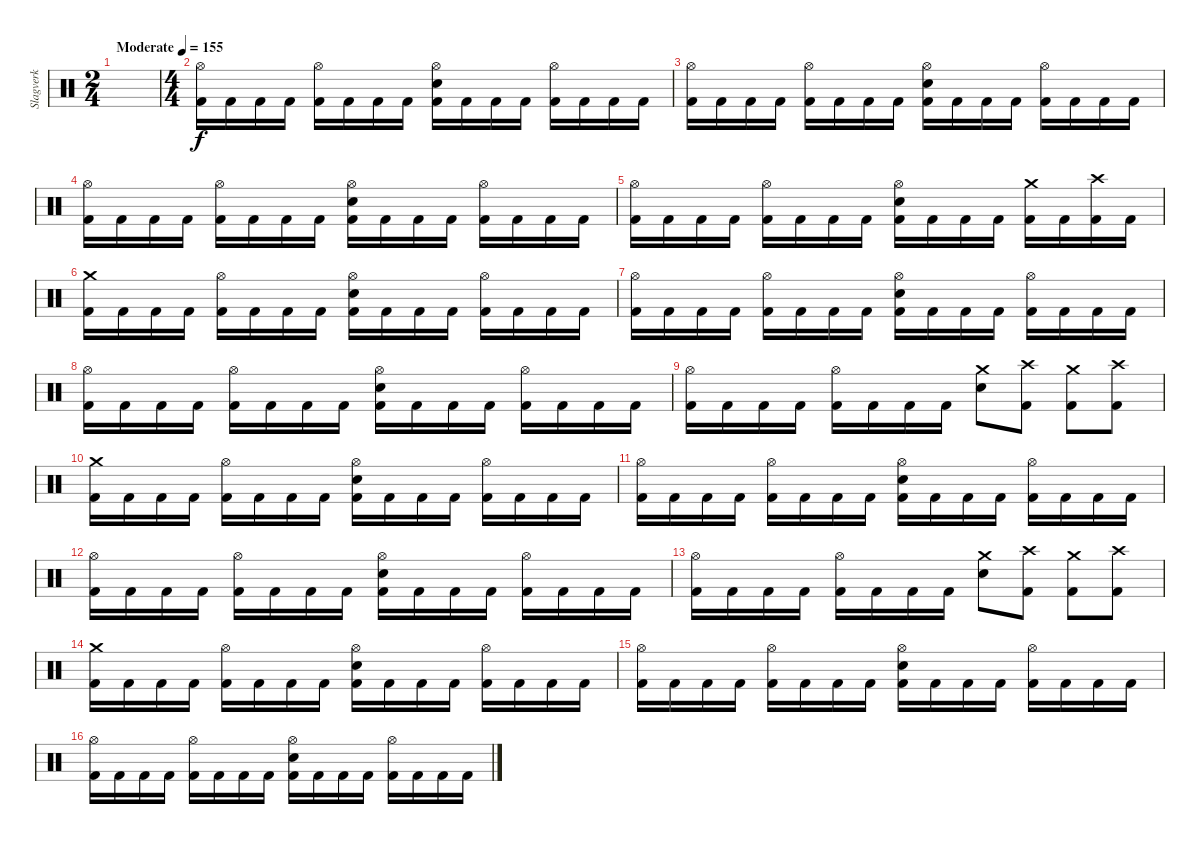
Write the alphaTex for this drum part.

\track ("Slagverk" "Slagverk") {instrument percussion}
\staff {score}
\articulation defaults
\ts (2 4)
\tempo (155 "Moderate")
\clef neutral
\ks c
|
\ts (4 4)
("Hi-Hat (open)" "Kick (hit) 2").16 "Kick (hit) 2".16 "Kick (hit) 2".16 "Kick (hit) 2".16 ("Hi-Hat (open)" "Kick (hit) 2").16 "Kick (hit) 2".16 "Kick (hit) 2".16 "Kick (hit) 2".16 ("Hi-Hat (open)" "Electric Snare (hit)" "Kick (hit) 2").16 "Kick (hit) 2".16 "Kick (hit) 2".16 "Kick (hit) 2".16 ("Hi-Hat (open)" "Kick (hit) 2").16 "Kick (hit) 2".16 "Kick (hit) 2".16 "Kick (hit) 2".16 |
("Hi-Hat (open)" "Kick (hit) 2").16 "Kick (hit) 2".16 "Kick (hit) 2".16 "Kick (hit) 2".16 ("Hi-Hat (open)" "Kick (hit) 2").16 "Kick (hit) 2".16 "Kick (hit) 2".16 "Kick (hit) 2".16 ("Hi-Hat (open)" "Electric Snare (hit)" "Kick (hit) 2").16 "Kick (hit) 2".16 "Kick (hit) 2".16 "Kick (hit) 2".16 ("Hi-Hat (open)" "Kick (hit) 2").16 "Kick (hit) 2".16 "Kick (hit) 2".16 "Kick (hit) 2".16 |
("Hi-Hat (open)" "Kick (hit) 2").16 "Kick (hit) 2".16 "Kick (hit) 2".16 "Kick (hit) 2".16 ("Hi-Hat (open)" "Kick (hit) 2").16 "Kick (hit) 2".16 "Kick (hit) 2".16 "Kick (hit) 2".16 ("Hi-Hat (open)" "Electric Snare (hit)" "Kick (hit) 2").16 "Kick (hit) 2".16 "Kick (hit) 2".16 "Kick (hit) 2".16 ("Hi-Hat (open)" "Kick (hit) 2").16 "Kick (hit) 2".16 "Kick (hit) 2".16 "Kick (hit) 2".16 |
("Hi-Hat (open)" "Kick (hit) 2").16 "Kick (hit) 2".16 "Kick (hit) 2".16 "Kick (hit) 2".16 ("Hi-Hat (open)" "Kick (hit) 2").16 "Kick (hit) 2".16 "Kick (hit) 2".16 "Kick (hit) 2".16 ("Hi-Hat (open)" "Electric Snare (hit)" "Kick (hit) 2").16 "Kick (hit) 2".16 "Kick (hit) 2".16 "Kick (hit) 2".16 ("Crash medium (hit)" "Kick (hit) 2").16 "Kick (hit) 2".16 ("Crash high (hit)" "Kick (hit) 2").16 "Kick (hit) 2".16 |
("Crash medium (hit)" "Kick (hit) 2").16 "Kick (hit) 2".16 "Kick (hit) 2".16 "Kick (hit) 2".16 ("Hi-Hat (open)" "Kick (hit) 2").16 "Kick (hit) 2".16 "Kick (hit) 2".16 "Kick (hit) 2".16 ("Hi-Hat (open)" "Electric Snare (hit)" "Kick (hit) 2").16 "Kick (hit) 2".16 "Kick (hit) 2".16 "Kick (hit) 2".16 ("Hi-Hat (open)" "Kick (hit) 2").16 "Kick (hit) 2".16 "Kick (hit) 2".16 "Kick (hit) 2".16 |
("Hi-Hat (open)" "Kick (hit) 2").16 "Kick (hit) 2".16 "Kick (hit) 2".16 "Kick (hit) 2".16 ("Hi-Hat (open)" "Kick (hit) 2").16 "Kick (hit) 2".16 "Kick (hit) 2".16 "Kick (hit) 2".16 ("Hi-Hat (open)" "Electric Snare (hit)" "Kick (hit) 2").16 "Kick (hit) 2".16 "Kick (hit) 2".16 "Kick (hit) 2".16 ("Hi-Hat (open)" "Kick (hit) 2").16 "Kick (hit) 2".16 "Kick (hit) 2".16 "Kick (hit) 2".16 |
("Hi-Hat (open)" "Kick (hit) 2").16 "Kick (hit) 2".16 "Kick (hit) 2".16 "Kick (hit) 2".16 ("Hi-Hat (open)" "Kick (hit) 2").16 "Kick (hit) 2".16 "Kick (hit) 2".16 "Kick (hit) 2".16 ("Hi-Hat (open)" "Electric Snare (hit)" "Kick (hit) 2").16 "Kick (hit) 2".16 "Kick (hit) 2".16 "Kick (hit) 2".16 ("Hi-Hat (open)" "Kick (hit) 2").16 "Kick (hit) 2".16 "Kick (hit) 2".16 "Kick (hit) 2".16 |
("Hi-Hat (open)" "Kick (hit) 2").16 "Kick (hit) 2".16 "Kick (hit) 2".16 "Kick (hit) 2".16 ("Hi-Hat (open)" "Kick (hit) 2").16 "Kick (hit) 2".16 "Kick (hit) 2".16 "Kick (hit) 2".16 ("Crash medium (hit)" "Electric Snare (hit)").8 ("Crash high (hit)" "Kick (hit) 2").8 ("Crash medium (hit)" "Kick (hit) 2").8 ("Crash high (hit)" "Kick (hit) 2").8 |
("Crash medium (hit)" "Kick (hit) 2").16 "Kick (hit) 2".16 "Kick (hit) 2".16 "Kick (hit) 2".16 ("Hi-Hat (open)" "Kick (hit) 2").16 "Kick (hit) 2".16 "Kick (hit) 2".16 "Kick (hit) 2".16 ("Hi-Hat (open)" "Electric Snare (hit)" "Kick (hit) 2").16 "Kick (hit) 2".16 "Kick (hit) 2".16 "Kick (hit) 2".16 ("Hi-Hat (open)" "Kick (hit) 2").16 "Kick (hit) 2".16 "Kick (hit) 2".16 "Kick (hit) 2".16 |
("Hi-Hat (open)" "Kick (hit) 2").16 "Kick (hit) 2".16 "Kick (hit) 2".16 "Kick (hit) 2".16 ("Hi-Hat (open)" "Kick (hit) 2").16 "Kick (hit) 2".16 "Kick (hit) 2".16 "Kick (hit) 2".16 ("Hi-Hat (open)" "Electric Snare (hit)" "Kick (hit) 2").16 "Kick (hit) 2".16 "Kick (hit) 2".16 "Kick (hit) 2".16 ("Hi-Hat (open)" "Kick (hit) 2").16 "Kick (hit) 2".16 "Kick (hit) 2".16 "Kick (hit) 2".16 |
("Hi-Hat (open)" "Kick (hit) 2").16 "Kick (hit) 2".16 "Kick (hit) 2".16 "Kick (hit) 2".16 ("Hi-Hat (open)" "Kick (hit) 2").16 "Kick (hit) 2".16 "Kick (hit) 2".16 "Kick (hit) 2".16 ("Hi-Hat (open)" "Electric Snare (hit)" "Kick (hit) 2").16 "Kick (hit) 2".16 "Kick (hit) 2".16 "Kick (hit) 2".16 ("Hi-Hat (open)" "Kick (hit) 2").16 "Kick (hit) 2".16 "Kick (hit) 2".16 "Kick (hit) 2".16 |
("Hi-Hat (open)" "Kick (hit) 2").16 "Kick (hit) 2".16 "Kick (hit) 2".16 "Kick (hit) 2".16 ("Hi-Hat (open)" "Kick (hit) 2").16 "Kick (hit) 2".16 "Kick (hit) 2".16 "Kick (hit) 2".16 ("Crash medium (hit)" "Electric Snare (hit)").8 ("Crash high (hit)" "Kick (hit) 2").8 ("Crash medium (hit)" "Kick (hit) 2").8 ("Crash high (hit)" "Kick (hit) 2").8 |
("Crash medium (hit)" "Kick (hit) 2").16 "Kick (hit) 2".16 "Kick (hit) 2".16 "Kick (hit) 2".16 ("Hi-Hat (open)" "Kick (hit) 2").16 "Kick (hit) 2".16 "Kick (hit) 2".16 "Kick (hit) 2".16 ("Hi-Hat (open)" "Electric Snare (hit)" "Kick (hit) 2").16 "Kick (hit) 2".16 "Kick (hit) 2".16 "Kick (hit) 2".16 ("Hi-Hat (open)" "Kick (hit) 2").16 "Kick (hit) 2".16 "Kick (hit) 2".16 "Kick (hit) 2".16 |
("Hi-Hat (open)" "Kick (hit) 2").16 "Kick (hit) 2".16 "Kick (hit) 2".16 "Kick (hit) 2".16 ("Hi-Hat (open)" "Kick (hit) 2").16 "Kick (hit) 2".16 "Kick (hit) 2".16 "Kick (hit) 2".16 ("Hi-Hat (open)" "Electric Snare (hit)" "Kick (hit) 2").16 "Kick (hit) 2".16 "Kick (hit) 2".16 "Kick (hit) 2".16 ("Hi-Hat (open)" "Kick (hit) 2").16 "Kick (hit) 2".16 "Kick (hit) 2".16 "Kick (hit) 2".16 |
("Hi-Hat (open)" "Kick (hit) 2").16 "Kick (hit) 2".16 "Kick (hit) 2".16 "Kick (hit) 2".16 ("Hi-Hat (open)" "Kick (hit) 2").16 "Kick (hit) 2".16 "Kick (hit) 2".16 "Kick (hit) 2".16 ("Hi-Hat (open)" "Electric Snare (hit)" "Kick (hit) 2").16 "Kick (hit) 2".16 "Kick (hit) 2".16 "Kick (hit) 2".16 ("Hi-Hat (open)" "Kick (hit) 2").16 "Kick (hit) 2".16 "Kick (hit) 2".16 "Kick (hit) 2".16
